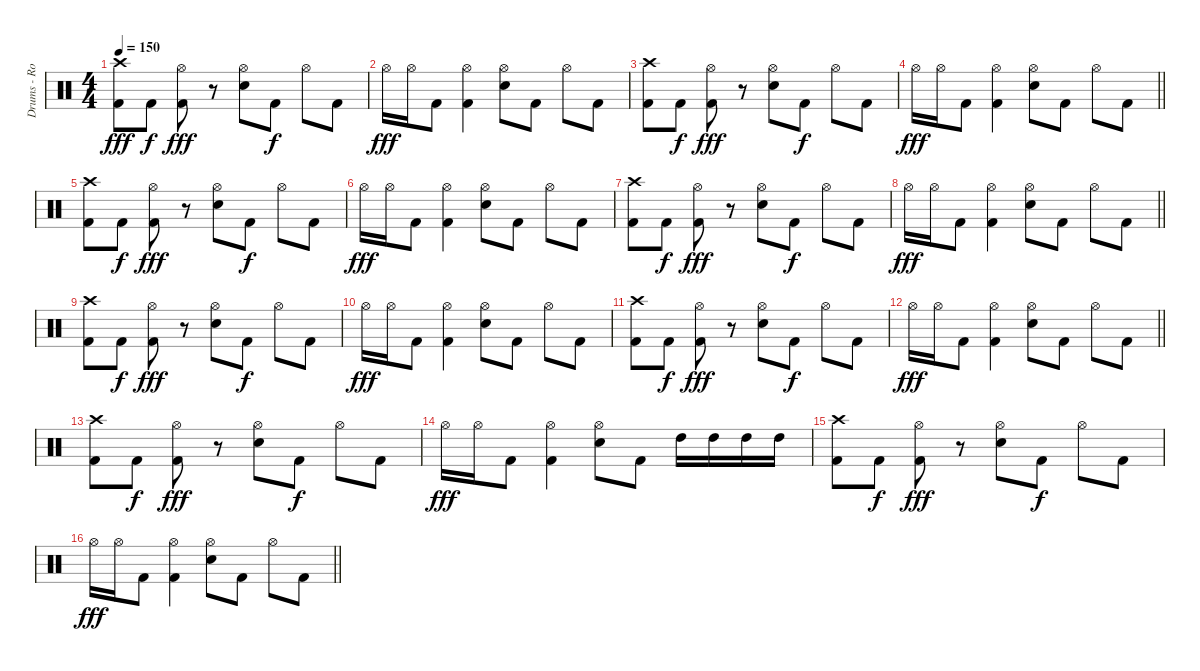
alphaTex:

\track ("Drums - Rob Bourdon" "Drums - Ro") {instrument percussion}
\staff {score}
\articulation defaults
\ts (4 4)
\tempo 150
\clef neutral
\ks c
("Crash high (hit)" "Kick (hit) 2").8{dy fff} "Kick (hit) 2".8{dy f} ("Hi-Hat (open)" "Kick (hit) 2").8{dy fff} r.8 ("Hi-Hat (open)" "Snare (hit) 2").8 "Kick (hit) 2".8{dy f} "Hi-Hat (open)".8 "Kick (hit) 2".8 |
"Hi-Hat (open)".16{dy fff} "Hi-Hat (open)".16 "Kick (hit) 2".8 ("Hi-Hat (open)" "Kick (hit) 2").4 ("Hi-Hat (open)" "Snare (hit) 2").8 "Kick (hit) 2".8 "Hi-Hat (open)".8 "Kick (hit) 2".8 |
("Crash high (hit)" "Kick (hit) 2").8 "Kick (hit) 2".8{dy f} ("Hi-Hat (open)" "Kick (hit) 2").8{dy fff} r.8 ("Hi-Hat (open)" "Snare (hit) 2").8 "Kick (hit) 2".8{dy f} "Hi-Hat (open)".8 "Kick (hit) 2".8 |
\barLineRight lightlight "Hi-Hat (open)".16{dy fff} "Hi-Hat (open)".16 "Kick (hit) 2".8
("Hi-Hat (open)" "Kick (hit) 2").4 ("Hi-Hat (open)" "Snare (hit) 2").8 "Kick (hit) 2".8 "Hi-Hat (open)".8 "Kick (hit) 2".8 |
("Crash high (hit)" "Kick (hit) 2").8 "Kick (hit) 2".8{dy f} ("Hi-Hat (open)" "Kick (hit) 2").8{dy fff} r.8 ("Hi-Hat (open)" "Snare (hit) 2").8 "Kick (hit) 2".8{dy f} "Hi-Hat (open)".8 "Kick (hit) 2".8 |
"Hi-Hat (open)".16{dy fff} "Hi-Hat (open)".16 "Kick (hit) 2".8 ("Hi-Hat (open)" "Kick (hit) 2").4 ("Hi-Hat (open)" "Snare (hit) 2").8 "Kick (hit) 2".8 "Hi-Hat (open)".8 "Kick (hit) 2".8 |
("Crash high (hit)" "Kick (hit) 2").8 "Kick (hit) 2".8{dy f} ("Hi-Hat (open)" "Kick (hit) 2").8{dy fff} r.8 ("Hi-Hat (open)" "Snare (hit) 2").8 "Kick (hit) 2".8{dy f} "Hi-Hat (open)".8 "Kick (hit) 2".8 |
\barLineRight lightlight "Hi-Hat (open)".16{dy fff} "Hi-Hat (open)".16 "Kick (hit) 2".8
("Hi-Hat (open)" "Kick (hit) 2").4 ("Hi-Hat (open)" "Snare (hit) 2").8 "Kick (hit) 2".8 "Hi-Hat (open)".8 "Kick (hit) 2".8 |
("Crash high (hit)" "Kick (hit) 2").8 "Kick (hit) 2".8{dy f} ("Hi-Hat (open)" "Kick (hit) 2").8{dy fff} r.8 ("Hi-Hat (open)" "Snare (hit) 2").8 "Kick (hit) 2".8{dy f} "Hi-Hat (open)".8 "Kick (hit) 2".8 |
"Hi-Hat (open)".16{dy fff} "Hi-Hat (open)".16 "Kick (hit) 2".8 ("Hi-Hat (open)" "Kick (hit) 2").4 ("Hi-Hat (open)" "Snare (hit) 2").8 "Kick (hit) 2".8 "Hi-Hat (open)".8 "Kick (hit) 2".8 |
("Crash high (hit)" "Kick (hit) 2").8 "Kick (hit) 2".8{dy f} ("Hi-Hat (open)" "Kick (hit) 2").8{dy fff} r.8 ("Hi-Hat (open)" "Snare (hit) 2").8 "Kick (hit) 2".8{dy f} "Hi-Hat (open)".8 "Kick (hit) 2".8 |
\barLineRight lightlight "Hi-Hat (open)".16{dy fff} "Hi-Hat (open)".16 "Kick (hit) 2".8
("Hi-Hat (open)" "Kick (hit) 2").4 ("Hi-Hat (open)" "Snare (hit) 2").8 "Kick (hit) 2".8 "Hi-Hat (open)".8 "Kick (hit) 2".8 |
("Crash high (hit)" "Kick (hit) 2").8 "Kick (hit) 2".8{dy f} ("Hi-Hat (open)" "Kick (hit) 2").8{dy fff} r.8 ("Hi-Hat (open)" "Snare (hit) 2").8 "Kick (hit) 2".8{dy f} "Hi-Hat (open)".8 "Kick (hit) 2".8 |
"Hi-Hat (open)".16{dy fff} "Hi-Hat (open)".16 "Kick (hit) 2".8 ("Hi-Hat (open)" "Kick (hit) 2").4 ("Hi-Hat (open)" "Snare (hit) 2").8 "Kick (hit) 2".8 "High Tom (hit)".16 "High Tom (hit)".16 "High Tom (hit)".16 "High Tom (hit)".16 |
("Crash high (hit)" "Kick (hit) 2").8 "Kick (hit) 2".8{dy f} ("Hi-Hat (open)" "Kick (hit) 2").8{dy fff} r.8 ("Hi-Hat (open)" "Snare (hit) 2").8 "Kick (hit) 2".8{dy f} "Hi-Hat (open)".8 "Kick (hit) 2".8 |
\barLineRight lightlight "Hi-Hat (open)".16{dy fff} "Hi-Hat (open)".16 "Kick (hit) 2".8
("Hi-Hat (open)" "Kick (hit) 2").4 ("Hi-Hat (open)" "Snare (hit) 2").8 "Kick (hit) 2".8 "Hi-Hat (open)".8 "Kick (hit) 2".8
